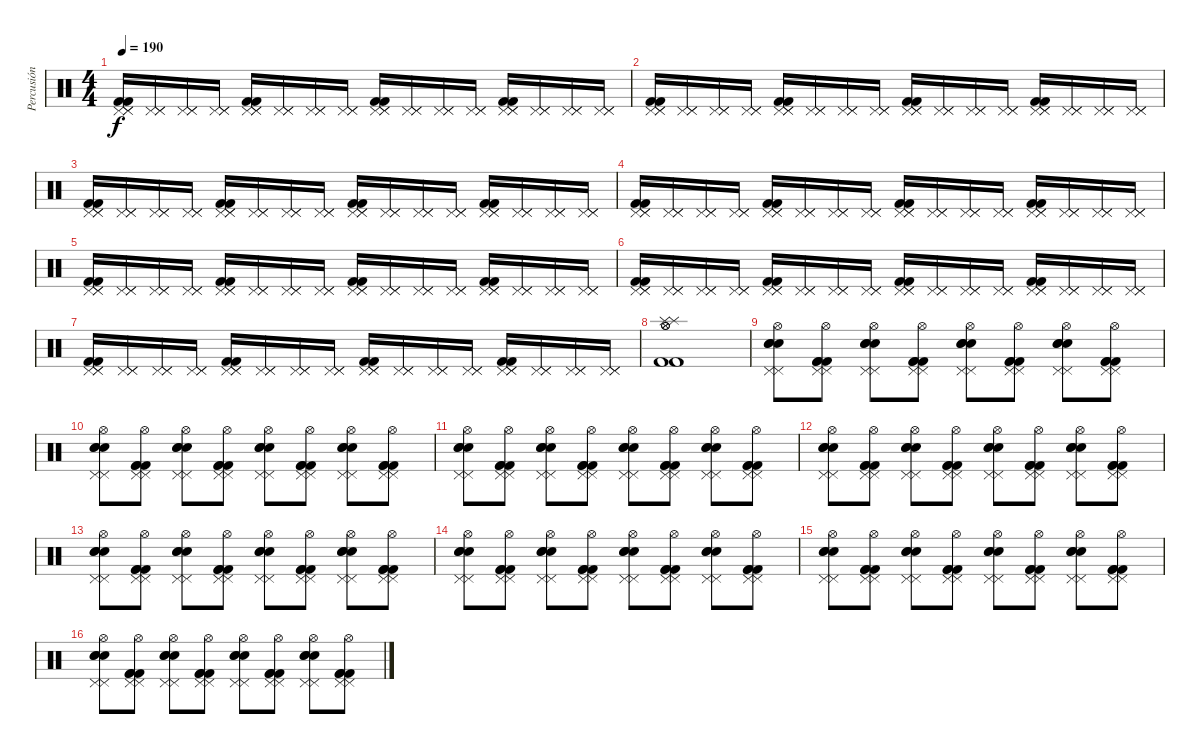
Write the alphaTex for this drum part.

\track ("Percusión" "Percusión") {instrument percussion}
\staff {score}
\articulation defaults
\ts (4 4)
\tempo 190
\clef neutral
\ks c
("Pedal Hi-Hat (hit)" "Pedal Hi-Hat (hit)" "Pedal Hi-Hat (hit)" "Kick (hit) 2" "Kick (hit) 2").16{dy f} ("Pedal Hi-Hat (hit)" "Pedal Hi-Hat (hit)" "Pedal Hi-Hat (hit)").16 ("Pedal Hi-Hat (hit)" "Pedal Hi-Hat (hit)" "Pedal Hi-Hat (hit)").16 ("Pedal Hi-Hat (hit)" "Pedal Hi-Hat (hit)" "Pedal Hi-Hat (hit)").16 ("Pedal Hi-Hat (hit)" "Pedal Hi-Hat (hit)" "Pedal Hi-Hat (hit)" "Kick (hit) 2" "Kick (hit) 2").16 ("Pedal Hi-Hat (hit)" "Pedal Hi-Hat (hit)" "Pedal Hi-Hat (hit)").16 ("Pedal Hi-Hat (hit)" "Pedal Hi-Hat (hit)" "Pedal Hi-Hat (hit)").16 ("Pedal Hi-Hat (hit)" "Pedal Hi-Hat (hit)" "Pedal Hi-Hat (hit)").16 ("Pedal Hi-Hat (hit)" "Pedal Hi-Hat (hit)" "Pedal Hi-Hat (hit)" "Kick (hit) 2" "Kick (hit) 2").16 ("Pedal Hi-Hat (hit)" "Pedal Hi-Hat (hit)" "Pedal Hi-Hat (hit)").16 ("Pedal Hi-Hat (hit)" "Pedal Hi-Hat (hit)" "Pedal Hi-Hat (hit)").16 ("Pedal Hi-Hat (hit)" "Pedal Hi-Hat (hit)" "Pedal Hi-Hat (hit)").16 ("Pedal Hi-Hat (hit)" "Pedal Hi-Hat (hit)" "Pedal Hi-Hat (hit)" "Kick (hit) 2" "Kick (hit) 2").16 ("Pedal Hi-Hat (hit)" "Pedal Hi-Hat (hit)" "Pedal Hi-Hat (hit)").16 ("Pedal Hi-Hat (hit)" "Pedal Hi-Hat (hit)" "Pedal Hi-Hat (hit)").16 ("Pedal Hi-Hat (hit)" "Pedal Hi-Hat (hit)" "Pedal Hi-Hat (hit)").16 |
("Pedal Hi-Hat (hit)" "Pedal Hi-Hat (hit)" "Pedal Hi-Hat (hit)" "Kick (hit) 2" "Kick (hit) 2").16 ("Pedal Hi-Hat (hit)" "Pedal Hi-Hat (hit)" "Pedal Hi-Hat (hit)").16 ("Pedal Hi-Hat (hit)" "Pedal Hi-Hat (hit)" "Pedal Hi-Hat (hit)").16 ("Pedal Hi-Hat (hit)" "Pedal Hi-Hat (hit)" "Pedal Hi-Hat (hit)").16 ("Pedal Hi-Hat (hit)" "Pedal Hi-Hat (hit)" "Pedal Hi-Hat (hit)" "Kick (hit) 2" "Kick (hit) 2").16 ("Pedal Hi-Hat (hit)" "Pedal Hi-Hat (hit)" "Pedal Hi-Hat (hit)").16 ("Pedal Hi-Hat (hit)" "Pedal Hi-Hat (hit)" "Pedal Hi-Hat (hit)").16 ("Pedal Hi-Hat (hit)" "Pedal Hi-Hat (hit)" "Pedal Hi-Hat (hit)").16 ("Pedal Hi-Hat (hit)" "Pedal Hi-Hat (hit)" "Pedal Hi-Hat (hit)" "Kick (hit) 2" "Kick (hit) 2").16 ("Pedal Hi-Hat (hit)" "Pedal Hi-Hat (hit)" "Pedal Hi-Hat (hit)").16 ("Pedal Hi-Hat (hit)" "Pedal Hi-Hat (hit)" "Pedal Hi-Hat (hit)").16 ("Pedal Hi-Hat (hit)" "Pedal Hi-Hat (hit)" "Pedal Hi-Hat (hit)").16 ("Pedal Hi-Hat (hit)" "Pedal Hi-Hat (hit)" "Pedal Hi-Hat (hit)" "Kick (hit) 2" "Kick (hit) 2").16 ("Pedal Hi-Hat (hit)" "Pedal Hi-Hat (hit)" "Pedal Hi-Hat (hit)").16 ("Pedal Hi-Hat (hit)" "Pedal Hi-Hat (hit)" "Pedal Hi-Hat (hit)").16 ("Pedal Hi-Hat (hit)" "Pedal Hi-Hat (hit)" "Pedal Hi-Hat (hit)").16 |
("Pedal Hi-Hat (hit)" "Pedal Hi-Hat (hit)" "Pedal Hi-Hat (hit)" "Kick (hit) 2" "Kick (hit) 2").16 ("Pedal Hi-Hat (hit)" "Pedal Hi-Hat (hit)" "Pedal Hi-Hat (hit)").16 ("Pedal Hi-Hat (hit)" "Pedal Hi-Hat (hit)" "Pedal Hi-Hat (hit)").16 ("Pedal Hi-Hat (hit)" "Pedal Hi-Hat (hit)" "Pedal Hi-Hat (hit)").16 ("Pedal Hi-Hat (hit)" "Pedal Hi-Hat (hit)" "Pedal Hi-Hat (hit)" "Kick (hit) 2" "Kick (hit) 2").16 ("Pedal Hi-Hat (hit)" "Pedal Hi-Hat (hit)" "Pedal Hi-Hat (hit)").16 ("Pedal Hi-Hat (hit)" "Pedal Hi-Hat (hit)" "Pedal Hi-Hat (hit)").16 ("Pedal Hi-Hat (hit)" "Pedal Hi-Hat (hit)" "Pedal Hi-Hat (hit)").16 ("Pedal Hi-Hat (hit)" "Pedal Hi-Hat (hit)" "Pedal Hi-Hat (hit)" "Kick (hit) 2" "Kick (hit) 2").16 ("Pedal Hi-Hat (hit)" "Pedal Hi-Hat (hit)" "Pedal Hi-Hat (hit)").16 ("Pedal Hi-Hat (hit)" "Pedal Hi-Hat (hit)" "Pedal Hi-Hat (hit)").16 ("Pedal Hi-Hat (hit)" "Pedal Hi-Hat (hit)" "Pedal Hi-Hat (hit)").16 ("Pedal Hi-Hat (hit)" "Pedal Hi-Hat (hit)" "Pedal Hi-Hat (hit)" "Kick (hit) 2" "Kick (hit) 2").16 ("Pedal Hi-Hat (hit)" "Pedal Hi-Hat (hit)" "Pedal Hi-Hat (hit)").16 ("Pedal Hi-Hat (hit)" "Pedal Hi-Hat (hit)" "Pedal Hi-Hat (hit)").16 ("Pedal Hi-Hat (hit)" "Pedal Hi-Hat (hit)" "Pedal Hi-Hat (hit)").16 |
("Pedal Hi-Hat (hit)" "Pedal Hi-Hat (hit)" "Pedal Hi-Hat (hit)" "Kick (hit) 2" "Kick (hit) 2").16 ("Pedal Hi-Hat (hit)" "Pedal Hi-Hat (hit)" "Pedal Hi-Hat (hit)").16 ("Pedal Hi-Hat (hit)" "Pedal Hi-Hat (hit)" "Pedal Hi-Hat (hit)").16 ("Pedal Hi-Hat (hit)" "Pedal Hi-Hat (hit)" "Pedal Hi-Hat (hit)").16 ("Pedal Hi-Hat (hit)" "Pedal Hi-Hat (hit)" "Pedal Hi-Hat (hit)" "Kick (hit) 2" "Kick (hit) 2").16 ("Pedal Hi-Hat (hit)" "Pedal Hi-Hat (hit)" "Pedal Hi-Hat (hit)").16 ("Pedal Hi-Hat (hit)" "Pedal Hi-Hat (hit)" "Pedal Hi-Hat (hit)").16 ("Pedal Hi-Hat (hit)" "Pedal Hi-Hat (hit)" "Pedal Hi-Hat (hit)").16 ("Pedal Hi-Hat (hit)" "Pedal Hi-Hat (hit)" "Pedal Hi-Hat (hit)" "Kick (hit) 2" "Kick (hit) 2").16 ("Pedal Hi-Hat (hit)" "Pedal Hi-Hat (hit)" "Pedal Hi-Hat (hit)").16 ("Pedal Hi-Hat (hit)" "Pedal Hi-Hat (hit)" "Pedal Hi-Hat (hit)").16 ("Pedal Hi-Hat (hit)" "Pedal Hi-Hat (hit)" "Pedal Hi-Hat (hit)").16 ("Pedal Hi-Hat (hit)" "Pedal Hi-Hat (hit)" "Pedal Hi-Hat (hit)" "Kick (hit) 2" "Kick (hit) 2").16 ("Pedal Hi-Hat (hit)" "Pedal Hi-Hat (hit)" "Pedal Hi-Hat (hit)").16 ("Pedal Hi-Hat (hit)" "Pedal Hi-Hat (hit)" "Pedal Hi-Hat (hit)").16 ("Pedal Hi-Hat (hit)" "Pedal Hi-Hat (hit)" "Pedal Hi-Hat (hit)").16 |
("Pedal Hi-Hat (hit)" "Pedal Hi-Hat (hit)" "Pedal Hi-Hat (hit)" "Kick (hit) 2" "Kick (hit) 2").16 ("Pedal Hi-Hat (hit)" "Pedal Hi-Hat (hit)" "Pedal Hi-Hat (hit)").16 ("Pedal Hi-Hat (hit)" "Pedal Hi-Hat (hit)" "Pedal Hi-Hat (hit)").16 ("Pedal Hi-Hat (hit)" "Pedal Hi-Hat (hit)" "Pedal Hi-Hat (hit)").16 ("Pedal Hi-Hat (hit)" "Pedal Hi-Hat (hit)" "Pedal Hi-Hat (hit)" "Kick (hit) 2" "Kick (hit) 2").16 ("Pedal Hi-Hat (hit)" "Pedal Hi-Hat (hit)" "Pedal Hi-Hat (hit)").16 ("Pedal Hi-Hat (hit)" "Pedal Hi-Hat (hit)" "Pedal Hi-Hat (hit)").16 ("Pedal Hi-Hat (hit)" "Pedal Hi-Hat (hit)" "Pedal Hi-Hat (hit)").16 ("Pedal Hi-Hat (hit)" "Pedal Hi-Hat (hit)" "Pedal Hi-Hat (hit)" "Kick (hit) 2" "Kick (hit) 2").16 ("Pedal Hi-Hat (hit)" "Pedal Hi-Hat (hit)" "Pedal Hi-Hat (hit)").16 ("Pedal Hi-Hat (hit)" "Pedal Hi-Hat (hit)" "Pedal Hi-Hat (hit)").16 ("Pedal Hi-Hat (hit)" "Pedal Hi-Hat (hit)" "Pedal Hi-Hat (hit)").16 ("Pedal Hi-Hat (hit)" "Pedal Hi-Hat (hit)" "Pedal Hi-Hat (hit)" "Kick (hit) 2" "Kick (hit) 2").16 ("Pedal Hi-Hat (hit)" "Pedal Hi-Hat (hit)" "Pedal Hi-Hat (hit)").16 ("Pedal Hi-Hat (hit)" "Pedal Hi-Hat (hit)" "Pedal Hi-Hat (hit)").16 ("Pedal Hi-Hat (hit)" "Pedal Hi-Hat (hit)" "Pedal Hi-Hat (hit)").16 |
("Pedal Hi-Hat (hit)" "Pedal Hi-Hat (hit)" "Pedal Hi-Hat (hit)" "Kick (hit) 2" "Kick (hit) 2").16 ("Pedal Hi-Hat (hit)" "Pedal Hi-Hat (hit)" "Pedal Hi-Hat (hit)").16 ("Pedal Hi-Hat (hit)" "Pedal Hi-Hat (hit)" "Pedal Hi-Hat (hit)").16 ("Pedal Hi-Hat (hit)" "Pedal Hi-Hat (hit)" "Pedal Hi-Hat (hit)").16 ("Pedal Hi-Hat (hit)" "Pedal Hi-Hat (hit)" "Pedal Hi-Hat (hit)" "Kick (hit) 2" "Kick (hit) 2").16 ("Pedal Hi-Hat (hit)" "Pedal Hi-Hat (hit)" "Pedal Hi-Hat (hit)").16 ("Pedal Hi-Hat (hit)" "Pedal Hi-Hat (hit)" "Pedal Hi-Hat (hit)").16 ("Pedal Hi-Hat (hit)" "Pedal Hi-Hat (hit)" "Pedal Hi-Hat (hit)").16 ("Pedal Hi-Hat (hit)" "Pedal Hi-Hat (hit)" "Pedal Hi-Hat (hit)" "Kick (hit) 2" "Kick (hit) 2").16 ("Pedal Hi-Hat (hit)" "Pedal Hi-Hat (hit)" "Pedal Hi-Hat (hit)").16 ("Pedal Hi-Hat (hit)" "Pedal Hi-Hat (hit)" "Pedal Hi-Hat (hit)").16 ("Pedal Hi-Hat (hit)" "Pedal Hi-Hat (hit)" "Pedal Hi-Hat (hit)").16 ("Pedal Hi-Hat (hit)" "Pedal Hi-Hat (hit)" "Pedal Hi-Hat (hit)" "Kick (hit) 2" "Kick (hit) 2").16 ("Pedal Hi-Hat (hit)" "Pedal Hi-Hat (hit)" "Pedal Hi-Hat (hit)").16 ("Pedal Hi-Hat (hit)" "Pedal Hi-Hat (hit)" "Pedal Hi-Hat (hit)").16 ("Pedal Hi-Hat (hit)" "Pedal Hi-Hat (hit)" "Pedal Hi-Hat (hit)").16 |
("Pedal Hi-Hat (hit)" "Pedal Hi-Hat (hit)" "Pedal Hi-Hat (hit)" "Kick (hit) 2" "Kick (hit) 2").16 ("Pedal Hi-Hat (hit)" "Pedal Hi-Hat (hit)" "Pedal Hi-Hat (hit)").16 ("Pedal Hi-Hat (hit)" "Pedal Hi-Hat (hit)" "Pedal Hi-Hat (hit)").16 ("Pedal Hi-Hat (hit)" "Pedal Hi-Hat (hit)" "Pedal Hi-Hat (hit)").16 ("Pedal Hi-Hat (hit)" "Pedal Hi-Hat (hit)" "Pedal Hi-Hat (hit)" "Kick (hit) 2" "Kick (hit) 2").16 ("Pedal Hi-Hat (hit)" "Pedal Hi-Hat (hit)" "Pedal Hi-Hat (hit)").16 ("Pedal Hi-Hat (hit)" "Pedal Hi-Hat (hit)" "Pedal Hi-Hat (hit)").16 ("Pedal Hi-Hat (hit)" "Pedal Hi-Hat (hit)" "Pedal Hi-Hat (hit)").16 ("Pedal Hi-Hat (hit)" "Pedal Hi-Hat (hit)" "Pedal Hi-Hat (hit)" "Kick (hit) 2" "Kick (hit) 2").16 ("Pedal Hi-Hat (hit)" "Pedal Hi-Hat (hit)" "Pedal Hi-Hat (hit)").16 ("Pedal Hi-Hat (hit)" "Pedal Hi-Hat (hit)" "Pedal Hi-Hat (hit)").16 ("Pedal Hi-Hat (hit)" "Pedal Hi-Hat (hit)" "Pedal Hi-Hat (hit)").16 ("Pedal Hi-Hat (hit)" "Pedal Hi-Hat (hit)" "Pedal Hi-Hat (hit)" "Kick (hit) 2" "Kick (hit) 2").16 ("Pedal Hi-Hat (hit)" "Pedal Hi-Hat (hit)" "Pedal Hi-Hat (hit)").16 ("Pedal Hi-Hat (hit)" "Pedal Hi-Hat (hit)" "Pedal Hi-Hat (hit)").16 ("Pedal Hi-Hat (hit)" "Pedal Hi-Hat (hit)" "Pedal Hi-Hat (hit)").16 |
("Hi-Hat (open)" "Hi-Hat (open)" "Kick (hit) 2" "Kick (hit) 2" "Splash (hit)" "Splash (hit)").1 |
("Snare (hit) 2" "Snare (hit) 2" "Snare (hit) 2" "Pedal Hi-Hat (hit)" "Hi-Hat (open)" "Pedal Hi-Hat (hit)").8 ("Kick (hit) 2" "Kick (hit) 2" "Kick (hit) 2" "Pedal Hi-Hat (hit)" "Hi-Hat (open)" "Pedal Hi-Hat (hit)").8 ("Snare (hit) 2" "Snare (hit) 2" "Snare (hit) 2" "Pedal Hi-Hat (hit)" "Hi-Hat (open)" "Pedal Hi-Hat (hit)").8 ("Kick (hit) 2" "Kick (hit) 2" "Kick (hit) 2" "Pedal Hi-Hat (hit)" "Hi-Hat (open)" "Pedal Hi-Hat (hit)").8 ("Snare (hit) 2" "Snare (hit) 2" "Snare (hit) 2" "Pedal Hi-Hat (hit)" "Hi-Hat (open)" "Pedal Hi-Hat (hit)").8 ("Kick (hit) 2" "Kick (hit) 2" "Kick (hit) 2" "Pedal Hi-Hat (hit)" "Hi-Hat (open)" "Pedal Hi-Hat (hit)").8 ("Snare (hit) 2" "Snare (hit) 2" "Snare (hit) 2" "Pedal Hi-Hat (hit)" "Hi-Hat (open)" "Pedal Hi-Hat (hit)").8 ("Kick (hit) 2" "Kick (hit) 2" "Kick (hit) 2" "Pedal Hi-Hat (hit)" "Hi-Hat (open)" "Pedal Hi-Hat (hit)").8 |
("Snare (hit) 2" "Snare (hit) 2" "Snare (hit) 2" "Pedal Hi-Hat (hit)" "Hi-Hat (open)" "Pedal Hi-Hat (hit)").8 ("Kick (hit) 2" "Kick (hit) 2" "Kick (hit) 2" "Pedal Hi-Hat (hit)" "Hi-Hat (open)" "Pedal Hi-Hat (hit)").8 ("Snare (hit) 2" "Snare (hit) 2" "Snare (hit) 2" "Pedal Hi-Hat (hit)" "Hi-Hat (open)" "Pedal Hi-Hat (hit)").8 ("Kick (hit) 2" "Kick (hit) 2" "Kick (hit) 2" "Pedal Hi-Hat (hit)" "Hi-Hat (open)" "Pedal Hi-Hat (hit)").8 ("Snare (hit) 2" "Snare (hit) 2" "Snare (hit) 2" "Pedal Hi-Hat (hit)" "Hi-Hat (open)" "Pedal Hi-Hat (hit)").8 ("Kick (hit) 2" "Kick (hit) 2" "Kick (hit) 2" "Pedal Hi-Hat (hit)" "Hi-Hat (open)" "Pedal Hi-Hat (hit)").8 ("Snare (hit) 2" "Snare (hit) 2" "Snare (hit) 2" "Pedal Hi-Hat (hit)" "Hi-Hat (open)" "Pedal Hi-Hat (hit)").8 ("Kick (hit) 2" "Kick (hit) 2" "Kick (hit) 2" "Pedal Hi-Hat (hit)" "Hi-Hat (open)" "Pedal Hi-Hat (hit)").8 |
("Snare (hit) 2" "Snare (hit) 2" "Snare (hit) 2" "Pedal Hi-Hat (hit)" "Hi-Hat (open)" "Pedal Hi-Hat (hit)").8 ("Kick (hit) 2" "Kick (hit) 2" "Kick (hit) 2" "Pedal Hi-Hat (hit)" "Hi-Hat (open)" "Pedal Hi-Hat (hit)").8 ("Snare (hit) 2" "Snare (hit) 2" "Snare (hit) 2" "Pedal Hi-Hat (hit)" "Hi-Hat (open)" "Pedal Hi-Hat (hit)").8 ("Kick (hit) 2" "Kick (hit) 2" "Kick (hit) 2" "Pedal Hi-Hat (hit)" "Hi-Hat (open)" "Pedal Hi-Hat (hit)").8 ("Snare (hit) 2" "Snare (hit) 2" "Snare (hit) 2" "Pedal Hi-Hat (hit)" "Hi-Hat (open)" "Pedal Hi-Hat (hit)").8 ("Kick (hit) 2" "Kick (hit) 2" "Kick (hit) 2" "Pedal Hi-Hat (hit)" "Hi-Hat (open)" "Pedal Hi-Hat (hit)").8 ("Snare (hit) 2" "Snare (hit) 2" "Snare (hit) 2" "Pedal Hi-Hat (hit)" "Hi-Hat (open)" "Pedal Hi-Hat (hit)").8 ("Kick (hit) 2" "Kick (hit) 2" "Kick (hit) 2" "Pedal Hi-Hat (hit)" "Hi-Hat (open)" "Pedal Hi-Hat (hit)").8 |
("Snare (hit) 2" "Snare (hit) 2" "Snare (hit) 2" "Pedal Hi-Hat (hit)" "Hi-Hat (open)" "Pedal Hi-Hat (hit)").8 ("Kick (hit) 2" "Kick (hit) 2" "Kick (hit) 2" "Pedal Hi-Hat (hit)" "Hi-Hat (open)" "Pedal Hi-Hat (hit)").8 ("Snare (hit) 2" "Snare (hit) 2" "Snare (hit) 2" "Pedal Hi-Hat (hit)" "Hi-Hat (open)" "Pedal Hi-Hat (hit)").8 ("Kick (hit) 2" "Kick (hit) 2" "Kick (hit) 2" "Pedal Hi-Hat (hit)" "Hi-Hat (open)" "Pedal Hi-Hat (hit)").8 ("Snare (hit) 2" "Snare (hit) 2" "Snare (hit) 2" "Pedal Hi-Hat (hit)" "Hi-Hat (open)" "Pedal Hi-Hat (hit)").8 ("Kick (hit) 2" "Kick (hit) 2" "Kick (hit) 2" "Pedal Hi-Hat (hit)" "Hi-Hat (open)" "Pedal Hi-Hat (hit)").8 ("Snare (hit) 2" "Snare (hit) 2" "Snare (hit) 2" "Pedal Hi-Hat (hit)" "Hi-Hat (open)" "Pedal Hi-Hat (hit)").8 ("Kick (hit) 2" "Kick (hit) 2" "Kick (hit) 2" "Pedal Hi-Hat (hit)" "Hi-Hat (open)" "Pedal Hi-Hat (hit)").8 |
("Snare (hit) 2" "Snare (hit) 2" "Snare (hit) 2" "Pedal Hi-Hat (hit)" "Hi-Hat (open)" "Pedal Hi-Hat (hit)").8 ("Kick (hit) 2" "Kick (hit) 2" "Kick (hit) 2" "Pedal Hi-Hat (hit)" "Hi-Hat (open)" "Pedal Hi-Hat (hit)").8 ("Snare (hit) 2" "Snare (hit) 2" "Snare (hit) 2" "Pedal Hi-Hat (hit)" "Hi-Hat (open)" "Pedal Hi-Hat (hit)").8 ("Kick (hit) 2" "Kick (hit) 2" "Kick (hit) 2" "Pedal Hi-Hat (hit)" "Hi-Hat (open)" "Pedal Hi-Hat (hit)").8 ("Snare (hit) 2" "Snare (hit) 2" "Snare (hit) 2" "Pedal Hi-Hat (hit)" "Hi-Hat (open)" "Pedal Hi-Hat (hit)").8 ("Kick (hit) 2" "Kick (hit) 2" "Kick (hit) 2" "Pedal Hi-Hat (hit)" "Hi-Hat (open)" "Pedal Hi-Hat (hit)").8 ("Snare (hit) 2" "Snare (hit) 2" "Snare (hit) 2" "Pedal Hi-Hat (hit)" "Hi-Hat (open)" "Pedal Hi-Hat (hit)").8 ("Kick (hit) 2" "Kick (hit) 2" "Kick (hit) 2" "Pedal Hi-Hat (hit)" "Hi-Hat (open)" "Pedal Hi-Hat (hit)").8 |
("Snare (hit) 2" "Snare (hit) 2" "Snare (hit) 2" "Pedal Hi-Hat (hit)" "Hi-Hat (open)" "Pedal Hi-Hat (hit)").8 ("Kick (hit) 2" "Kick (hit) 2" "Kick (hit) 2" "Pedal Hi-Hat (hit)" "Hi-Hat (open)" "Pedal Hi-Hat (hit)").8 ("Snare (hit) 2" "Snare (hit) 2" "Snare (hit) 2" "Pedal Hi-Hat (hit)" "Hi-Hat (open)" "Pedal Hi-Hat (hit)").8 ("Kick (hit) 2" "Kick (hit) 2" "Kick (hit) 2" "Pedal Hi-Hat (hit)" "Hi-Hat (open)" "Pedal Hi-Hat (hit)").8 ("Snare (hit) 2" "Snare (hit) 2" "Snare (hit) 2" "Pedal Hi-Hat (hit)" "Hi-Hat (open)" "Pedal Hi-Hat (hit)").8 ("Kick (hit) 2" "Kick (hit) 2" "Kick (hit) 2" "Pedal Hi-Hat (hit)" "Hi-Hat (open)" "Pedal Hi-Hat (hit)").8 ("Snare (hit) 2" "Snare (hit) 2" "Snare (hit) 2" "Pedal Hi-Hat (hit)" "Hi-Hat (open)" "Pedal Hi-Hat (hit)").8 ("Kick (hit) 2" "Kick (hit) 2" "Kick (hit) 2" "Pedal Hi-Hat (hit)" "Hi-Hat (open)" "Pedal Hi-Hat (hit)").8 |
("Snare (hit) 2" "Snare (hit) 2" "Snare (hit) 2" "Pedal Hi-Hat (hit)" "Hi-Hat (open)" "Pedal Hi-Hat (hit)").8 ("Kick (hit) 2" "Kick (hit) 2" "Kick (hit) 2" "Pedal Hi-Hat (hit)" "Hi-Hat (open)" "Pedal Hi-Hat (hit)").8 ("Snare (hit) 2" "Snare (hit) 2" "Snare (hit) 2" "Pedal Hi-Hat (hit)" "Hi-Hat (open)" "Pedal Hi-Hat (hit)").8 ("Kick (hit) 2" "Kick (hit) 2" "Kick (hit) 2" "Pedal Hi-Hat (hit)" "Hi-Hat (open)" "Pedal Hi-Hat (hit)").8 ("Snare (hit) 2" "Snare (hit) 2" "Snare (hit) 2" "Pedal Hi-Hat (hit)" "Hi-Hat (open)" "Pedal Hi-Hat (hit)").8 ("Kick (hit) 2" "Kick (hit) 2" "Kick (hit) 2" "Pedal Hi-Hat (hit)" "Hi-Hat (open)" "Pedal Hi-Hat (hit)").8 ("Snare (hit) 2" "Snare (hit) 2" "Snare (hit) 2" "Pedal Hi-Hat (hit)" "Hi-Hat (open)" "Pedal Hi-Hat (hit)").8 ("Kick (hit) 2" "Kick (hit) 2" "Kick (hit) 2" "Pedal Hi-Hat (hit)" "Hi-Hat (open)" "Pedal Hi-Hat (hit)").8 |
("Snare (hit) 2" "Snare (hit) 2" "Snare (hit) 2" "Pedal Hi-Hat (hit)" "Hi-Hat (open)" "Pedal Hi-Hat (hit)").8 ("Kick (hit) 2" "Kick (hit) 2" "Kick (hit) 2" "Pedal Hi-Hat (hit)" "Hi-Hat (open)" "Pedal Hi-Hat (hit)").8 ("Snare (hit) 2" "Snare (hit) 2" "Snare (hit) 2" "Pedal Hi-Hat (hit)" "Hi-Hat (open)" "Pedal Hi-Hat (hit)").8 ("Kick (hit) 2" "Kick (hit) 2" "Kick (hit) 2" "Pedal Hi-Hat (hit)" "Hi-Hat (open)" "Pedal Hi-Hat (hit)").8 ("Snare (hit) 2" "Snare (hit) 2" "Snare (hit) 2" "Pedal Hi-Hat (hit)" "Hi-Hat (open)" "Pedal Hi-Hat (hit)").8 ("Kick (hit) 2" "Kick (hit) 2" "Kick (hit) 2" "Pedal Hi-Hat (hit)" "Hi-Hat (open)" "Pedal Hi-Hat (hit)").8 ("Snare (hit) 2" "Snare (hit) 2" "Snare (hit) 2" "Pedal Hi-Hat (hit)" "Hi-Hat (open)" "Pedal Hi-Hat (hit)").8 ("Kick (hit) 2" "Kick (hit) 2" "Kick (hit) 2" "Pedal Hi-Hat (hit)" "Hi-Hat (open)" "Pedal Hi-Hat (hit)").8
